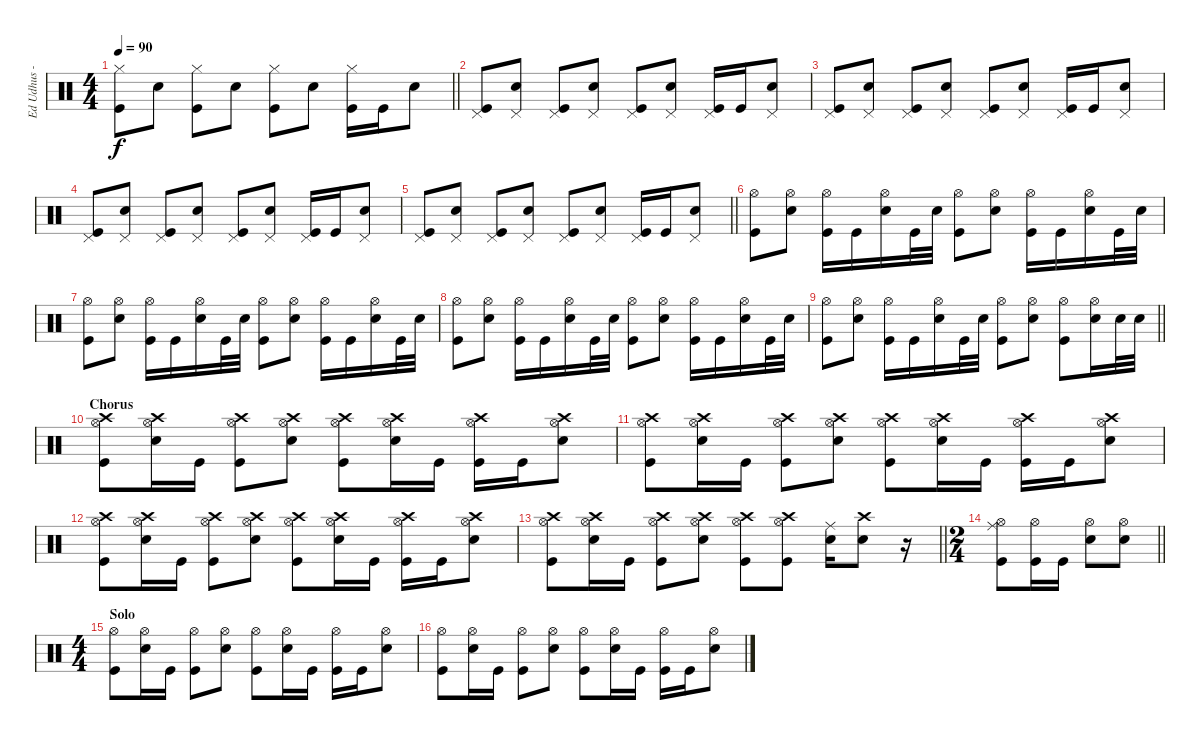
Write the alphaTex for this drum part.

\track ("Ed Udhus - Drums" "Ed Udhus -") {instrument percussion}
\staff {score}
\articulation defaults
\ts (4 4)
\tempo 90
\clef neutral
\barLineRight lightlight
\ks c
("Hi-Hat (closed)" "Kick (hit)").8{dy f} "Electric Snare (hit)".8 ("Hi-Hat (closed)" "Kick (hit)").8 "Electric Snare (hit)".8 ("Hi-Hat (closed)" "Kick (hit)").8 "Electric Snare (hit)".8 ("Hi-Hat (closed)" "Kick (hit)").16 "Kick (hit)".16 "Electric Snare (hit)".8 |
("Pedal Hi-Hat (hit)" "Kick (hit)").8 ("Pedal Hi-Hat (hit)" "Electric Snare (hit)").8 ("Pedal Hi-Hat (hit)" "Kick (hit)").8 ("Pedal Hi-Hat (hit)" "Electric Snare (hit)").8 ("Pedal Hi-Hat (hit)" "Kick (hit)").8 ("Pedal Hi-Hat (hit)" "Electric Snare (hit)").8 ("Pedal Hi-Hat (hit)" "Kick (hit)").16 "Kick (hit)".16 ("Pedal Hi-Hat (hit)" "Electric Snare (hit)").8 |
("Pedal Hi-Hat (hit)" "Kick (hit)").8 ("Pedal Hi-Hat (hit)" "Electric Snare (hit)").8 ("Pedal Hi-Hat (hit)" "Kick (hit)").8 ("Pedal Hi-Hat (hit)" "Electric Snare (hit)").8 ("Pedal Hi-Hat (hit)" "Kick (hit)").8 ("Pedal Hi-Hat (hit)" "Electric Snare (hit)").8 ("Pedal Hi-Hat (hit)" "Kick (hit)").16 "Kick (hit)".16 ("Pedal Hi-Hat (hit)" "Electric Snare (hit)").8 |
("Pedal Hi-Hat (hit)" "Kick (hit)").8 ("Pedal Hi-Hat (hit)" "Electric Snare (hit)").8 ("Pedal Hi-Hat (hit)" "Kick (hit)").8 ("Pedal Hi-Hat (hit)" "Electric Snare (hit)").8 ("Pedal Hi-Hat (hit)" "Kick (hit)").8 ("Pedal Hi-Hat (hit)" "Electric Snare (hit)").8 ("Pedal Hi-Hat (hit)" "Kick (hit)").16 "Kick (hit)".16 ("Pedal Hi-Hat (hit)" "Electric Snare (hit)").8 |
\barLineRight lightlight
("Pedal Hi-Hat (hit)" "Kick (hit)").8 ("Pedal Hi-Hat (hit)" "Electric Snare (hit)").8 ("Pedal Hi-Hat (hit)" "Kick (hit)").8 ("Pedal Hi-Hat (hit)" "Electric Snare (hit)").8 ("Pedal Hi-Hat (hit)" "Kick (hit)").8 ("Pedal Hi-Hat (hit)" "Electric Snare (hit)").8 ("Pedal Hi-Hat (hit)" "Kick (hit)").16 "Kick (hit)".16 ("Pedal Hi-Hat (hit)" "Electric Snare (hit)").8 |
("Hi-Hat (open)" "Kick (hit)").8 ("Hi-Hat (open)" "Electric Snare (hit)").8 ("Hi-Hat (open)" "Kick (hit)").16 "Kick (hit)".16 ("Hi-Hat (open)" "Electric Snare (hit)").16 "Kick (hit)".32 "Electric Snare (hit)".32 ("Hi-Hat (open)" "Kick (hit)").8 ("Hi-Hat (open)" "Electric Snare (hit)").8 ("Hi-Hat (open)" "Kick (hit)").16 "Kick (hit)".16 ("Hi-Hat (open)" "Electric Snare (hit)").16 "Kick (hit)".32 "Electric Snare (hit)".32 |
("Hi-Hat (open)" "Kick (hit)").8 ("Hi-Hat (open)" "Electric Snare (hit)").8 ("Hi-Hat (open)" "Kick (hit)").16 "Kick (hit)".16 ("Hi-Hat (open)" "Electric Snare (hit)").16 "Kick (hit)".32 "Electric Snare (hit)".32 ("Hi-Hat (open)" "Kick (hit)").8 ("Hi-Hat (open)" "Electric Snare (hit)").8 ("Hi-Hat (open)" "Kick (hit)").16 "Kick (hit)".16 ("Hi-Hat (open)" "Electric Snare (hit)").16 "Kick (hit)".32 "Electric Snare (hit)".32 |
("Hi-Hat (open)" "Kick (hit)").8 ("Hi-Hat (open)" "Electric Snare (hit)").8 ("Hi-Hat (open)" "Kick (hit)").16 "Kick (hit)".16 ("Hi-Hat (open)" "Electric Snare (hit)").16 "Kick (hit)".32 "Electric Snare (hit)".32 ("Hi-Hat (open)" "Kick (hit)").8 ("Hi-Hat (open)" "Electric Snare (hit)").8 ("Hi-Hat (open)" "Kick (hit)").16 "Kick (hit)".16 ("Hi-Hat (open)" "Electric Snare (hit)").16 "Kick (hit)".32 "Electric Snare (hit)".32 |
\barLineRight lightlight
("Hi-Hat (open)" "Kick (hit)").8 ("Hi-Hat (open)" "Electric Snare (hit)").8 ("Hi-Hat (open)" "Kick (hit)").16 "Kick (hit)".16 ("Hi-Hat (open)" "Electric Snare (hit)").16 "Kick (hit)".32 "Electric Snare (hit)".32 ("Hi-Hat (open)" "Kick (hit)").8 ("Hi-Hat (open)" "Electric Snare (hit)").8 ("Hi-Hat (open)" "Kick (hit)").8 ("Hi-Hat (open)" "Electric Snare (hit)").16 "Electric Snare (hit)".32 "Electric Snare (hit)".32 |
\section ("" "Chorus")
("Crash high (hit)" "Hi-Hat (open)" "Kick (hit)").8 ("Crash high (hit)" "Hi-Hat (open)" "Electric Snare (hit)").16 "Kick (hit)".16 ("Crash high (hit)" "Hi-Hat (open)" "Kick (hit)").8 ("Crash high (hit)" "Hi-Hat (open)" "Electric Snare (hit)").8 ("Crash high (hit)" "Hi-Hat (open)" "Kick (hit)").8 ("Crash high (hit)" "Hi-Hat (open)" "Electric Snare (hit)").16 "Kick (hit)".16 ("Crash high (hit)" "Hi-Hat (open)" "Kick (hit)").16 "Kick (hit)".16 ("Crash high (hit)" "Hi-Hat (open)" "Electric Snare (hit)").8 |
("Crash high (hit)" "Hi-Hat (open)" "Kick (hit)").8 ("Crash high (hit)" "Hi-Hat (open)" "Electric Snare (hit)").16 "Kick (hit)".16 ("Crash high (hit)" "Hi-Hat (open)" "Kick (hit)").8 ("Crash high (hit)" "Hi-Hat (open)" "Electric Snare (hit)").8 ("Crash high (hit)" "Hi-Hat (open)" "Kick (hit)").8 ("Crash high (hit)" "Hi-Hat (open)" "Electric Snare (hit)").16 "Kick (hit)".16 ("Crash high (hit)" "Hi-Hat (open)" "Kick (hit)").16 "Kick (hit)".16 ("Crash high (hit)" "Hi-Hat (open)" "Electric Snare (hit)").8 |
("Crash high (hit)" "Hi-Hat (open)" "Kick (hit)").8 ("Crash high (hit)" "Hi-Hat (open)" "Electric Snare (hit)").16 "Kick (hit)".16 ("Crash high (hit)" "Hi-Hat (open)" "Kick (hit)").8 ("Crash high (hit)" "Hi-Hat (open)" "Electric Snare (hit)").8 ("Crash high (hit)" "Hi-Hat (open)" "Kick (hit)").8 ("Crash high (hit)" "Hi-Hat (open)" "Electric Snare (hit)").16 "Kick (hit)".16 ("Crash high (hit)" "Hi-Hat (open)" "Kick (hit)").16 "Kick (hit)".16 ("Crash high (hit)" "Hi-Hat (open)" "Electric Snare (hit)").8 |
\barLineRight lightlight
("Crash high (hit)" "Hi-Hat (open)" "Kick (hit)").8 ("Crash high (hit)" "Hi-Hat (open)" "Electric Snare (hit)").16 "Kick (hit)".16 ("Crash high (hit)" "Hi-Hat (open)" "Kick (hit)").8 ("Crash high (hit)" "Hi-Hat (open)" "Electric Snare (hit)").8 ("Crash high (hit)" "Hi-Hat (open)" "Kick (hit)").8 ("Crash high (hit)" "Hi-Hat (open)" "Kick (hit)").8 ("Ride (middle)" "Electric Snare (hit)").16 ("Crash high (hit)" "Electric Snare (hit)").8 r.16 |
\ts (2 4)
\barLineRight lightlight
("Ride (middle)" "Hi-Hat (open)" "Kick (hit)").8 ("Hi-Hat (open)" "Kick (hit)").16 "Kick (hit)".16 ("Hi-Hat (open)" "Electric Snare (hit)").8 ("Hi-Hat (open)" "Electric Snare (hit)").8 |
\ts (4 4)
\section ("" "Solo")
("Hi-Hat (open)" "Kick (hit)").8 ("Hi-Hat (open)" "Electric Snare (hit)").16 "Kick (hit)".16 ("Hi-Hat (open)" "Kick (hit)").8 ("Hi-Hat (open)" "Electric Snare (hit)").8 ("Hi-Hat (open)" "Kick (hit)").8 ("Hi-Hat (open)" "Electric Snare (hit)").16 "Kick (hit)".16 ("Hi-Hat (open)" "Kick (hit)").16 "Kick (hit)".16 ("Hi-Hat (open)" "Electric Snare (hit)").8 |
("Hi-Hat (open)" "Kick (hit)").8 ("Hi-Hat (open)" "Electric Snare (hit)").16 "Kick (hit)".16 ("Hi-Hat (open)" "Kick (hit)").8 ("Hi-Hat (open)" "Electric Snare (hit)").8 ("Hi-Hat (open)" "Kick (hit)").8 ("Hi-Hat (open)" "Electric Snare (hit)").16 "Kick (hit)".16 ("Hi-Hat (open)" "Kick (hit)").16 "Kick (hit)".16 ("Hi-Hat (open)" "Electric Snare (hit)").8
